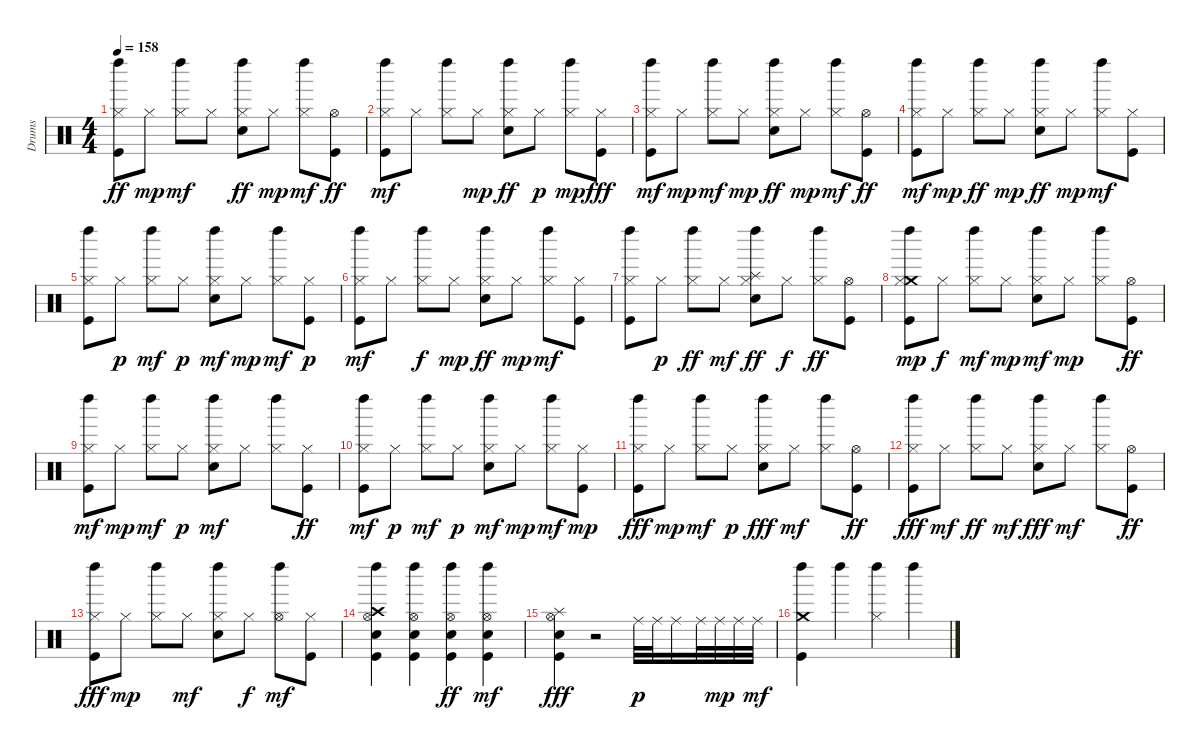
\track ("Drums" "Drums") {instrument percussion}
\staff {score}
\articulation defaults
\ts (4 4)
\tempo 158
\clef neutral
\ks c
("Kick (hit)" "Left Maraca (hit)" "Hi-Hat (closed)").8{dy ff} "Hi-Hat (closed)".8{dy mp} ("Left Maraca (hit)" "Hi-Hat (closed)").8{dy mf} "Hi-Hat (closed)".8 ("Left Maraca (hit)" "Electric Snare (hit)" "Hi-Hat (closed)").8{dy ff} "Hi-Hat (closed)".8{dy mp} ("Left Maraca (hit)" "Hi-Hat (closed)").8{dy mf} ("Hi-Hat (open)" "Kick (hit)").8{dy ff} |
("Hi-Hat (closed)" "Kick (hit)" "Left Maraca (hit)").8{dy mf} "Hi-Hat (closed)".8 ("Hi-Hat (closed)" "Left Maraca (hit)").8 "Hi-Hat (closed)".8{dy mp} ("Electric Snare (hit)" "Hi-Hat (closed)" "Left Maraca (hit)").8{dy ff} "Hi-Hat (closed)".8{dy p} ("Left Maraca (hit)" "Hi-Hat (closed)").8{dy mp} ("Hi-Hat (closed)" "Kick (hit)").8{dy fff} |
("Kick (hit)" "Left Maraca (hit)" "Hi-Hat (closed)").8{dy mf} "Hi-Hat (closed)".8{dy mp} ("Hi-Hat (closed)" "Left Maraca (hit)").8{dy mf} "Hi-Hat (closed)".8{dy mp} ("Left Maraca (hit)" "Electric Snare (hit)" "Hi-Hat (closed)").8{dy ff} "Hi-Hat (closed)".8{dy mp} ("Left Maraca (hit)" "Hi-Hat (closed)").8{dy mf} ("Hi-Hat (open)" "Kick (hit)").8{dy ff} |
("Kick (hit)" "Left Maraca (hit)" "Hi-Hat (closed)").8{dy mf} "Hi-Hat (closed)".8{dy mp} ("Left Maraca (hit)" "Hi-Hat (closed)").8{dy ff} "Hi-Hat (closed)".8{dy mp} ("Left Maraca (hit)" "Electric Snare (hit)" "Hi-Hat (closed)").8{dy ff} "Hi-Hat (closed)".8{dy mp} ("Left Maraca (hit)" "Hi-Hat (closed)").8{dy mf} ("Kick (hit)" "Hi-Hat (closed)").8 |
("Kick (hit)" "Hi-Hat (closed)" "Left Maraca (hit)").8 "Hi-Hat (closed)".8{dy p} ("Hi-Hat (closed)" "Left Maraca (hit)").8{dy mf} "Hi-Hat (closed)".8{dy p} ("Hi-Hat (closed)" "Electric Snare (hit)" "Left Maraca (hit)").8{dy mf} "Hi-Hat (closed)".8{dy mp} ("Hi-Hat (closed)" "Left Maraca (hit)").8{dy mf} ("Kick (hit)" "Hi-Hat (closed)").8{dy p} |
("Kick (hit)" "Hi-Hat (closed)" "Left Maraca (hit)").8{dy mf} "Hi-Hat (closed)".8 ("Left Maraca (hit)" "Hi-Hat (closed)").8{dy f} "Hi-Hat (closed)".8{dy mp} ("Electric Snare (hit)" "Hi-Hat (closed)" "Left Maraca (hit)").8{dy ff} "Hi-Hat (closed)".8{dy mp} ("Hi-Hat (closed)" "Left Maraca (hit)").8{dy mf} ("Kick (hit)" "Hi-Hat (closed)").8 |
("Kick (hit)" "Hi-Hat (closed)" "Left Maraca (hit)").8 "Hi-Hat (closed)".8{dy p} ("Left Maraca (hit)" "Hi-Hat (closed)").8{dy ff} "Hi-Hat (closed)".8{dy mf} ("Left Maraca (hit)" "Electric Snare (hit)" "Hi-Hat (closed)" "Splash (hit)").8{dy ff} "Hi-Hat (closed)".8{dy f} ("Left Maraca (hit)" "Hi-Hat (closed)").8{dy ff} ("Hi-Hat (open)" "Kick (hit)").8 |
("Crash medium (hit)" "Left Maraca (hit)" "Kick (hit)" "Hi-Hat (closed)").8{dy mp} "Hi-Hat (closed)".8{dy f} ("Hi-Hat (closed)" "Left Maraca (hit)").8{dy mf} "Hi-Hat (closed)".8{dy mp} ("Electric Snare (hit)" "Hi-Hat (closed)" "Left Maraca (hit)").8{dy mf} "Hi-Hat (closed)".8{dy mp} ("Hi-Hat (closed)" "Left Maraca (hit)").8 ("Hi-Hat (open)" "Kick (hit)").8{dy ff} |
("Hi-Hat (closed)" "Kick (hit)" "Left Maraca (hit)").8{dy mf} "Hi-Hat (closed)".8{dy mp} ("Hi-Hat (closed)" "Left Maraca (hit)").8{dy mf} "Hi-Hat (closed)".8{dy p} ("Hi-Hat (closed)" "Electric Snare (hit)" "Left Maraca (hit)").8{dy mf} "Hi-Hat (closed)".8 ("Hi-Hat (closed)" "Left Maraca (hit)").8 ("Hi-Hat (closed)" "Kick (hit)").8{dy ff} |
("Kick (hit)" "Hi-Hat (closed)" "Left Maraca (hit)").8{dy mf} "Hi-Hat (closed)".8{dy p} ("Hi-Hat (closed)" "Left Maraca (hit)").8{dy mf} "Hi-Hat (closed)".8{dy p} ("Electric Snare (hit)" "Hi-Hat (closed)" "Left Maraca (hit)").8{dy mf} "Hi-Hat (closed)".8{dy mp} ("Hi-Hat (closed)" "Left Maraca (hit)").8{dy mf} ("Kick (hit)" "Hi-Hat (closed)").8{dy mp} |
("Kick (hit)" "Hi-Hat (closed)" "Left Maraca (hit)").8{dy fff} "Hi-Hat (closed)".8{dy mp} ("Hi-Hat (closed)" "Left Maraca (hit)").8{dy mf} "Hi-Hat (closed)".8{dy p} ("Hi-Hat (closed)" "Left Maraca (hit)" "Electric Snare (hit)").8{dy fff} "Hi-Hat (closed)".8{dy mf} ("Hi-Hat (closed)" "Left Maraca (hit)").8 ("Hi-Hat (open)" "Kick (hit)").8{dy ff} |
("Hi-Hat (closed)" "Left Maraca (hit)" "Kick (hit)").8{dy fff} "Hi-Hat (closed)".8{dy mf} ("Left Maraca (hit)" "Hi-Hat (closed)").8{dy ff} "Hi-Hat (closed)".8{dy mf} ("Left Maraca (hit)" "Electric Snare (hit)" "Hi-Hat (closed)").8{dy fff} "Hi-Hat (closed)".8{dy mf} ("Left Maraca (hit)" "Hi-Hat (closed)").8 ("Hi-Hat (open)" "Kick (hit)").8{dy ff} |
("Hi-Hat (closed)" "Kick (hit)" "Left Maraca (hit)").8{dy fff} "Hi-Hat (closed)".8{dy mp} ("Hi-Hat (closed)" "Left Maraca (hit)").8 "Hi-Hat (closed)".8{dy mf} ("Hi-Hat (closed)" "Electric Snare (hit)" "Left Maraca (hit)").8 "Hi-Hat (closed)".8{dy f} ("Hi-Hat (open)" "Left Maraca (hit)").8{dy mf} ("Hi-Hat (closed)" "Kick (hit)").8 |
("Electric Snare (hit)" "Left Maraca (hit)" "Kick (hit)" "Hi-Hat (open)" "Crash high (hit)").4 ("Left Maraca (hit)" "Hi-Hat (open)" "Kick (hit)" "Electric Snare (hit)").4 ("Kick (hit)" "Electric Snare (hit)" "Left Maraca (hit)" "Hi-Hat (open)").4{dy ff} ("Kick (hit)" "Electric Snare (hit)" "Hi-Hat (open)" "Left Maraca (hit)").4{dy mf} |
("Electric Snare (hit)" "Kick (hit)" "Hi-Hat (open)" "Splash (hit)").4{dy fff} r.2 "Ride (middle)".32{dy p} "Ride (middle)".32 "Ride (middle)".16 "Ride (middle)".32 "Ride (middle)".32{dy mp} "Ride (middle)".32 "Ride (middle)".32{dy mf} |
("Kick (hit)" "Crash medium (hit)" "Left Maraca (hit)").4 "Left Maraca (hit)".4 ("Hi-Hat (closed)" "Left Maraca (hit)").4 "Left Maraca (hit)".4
